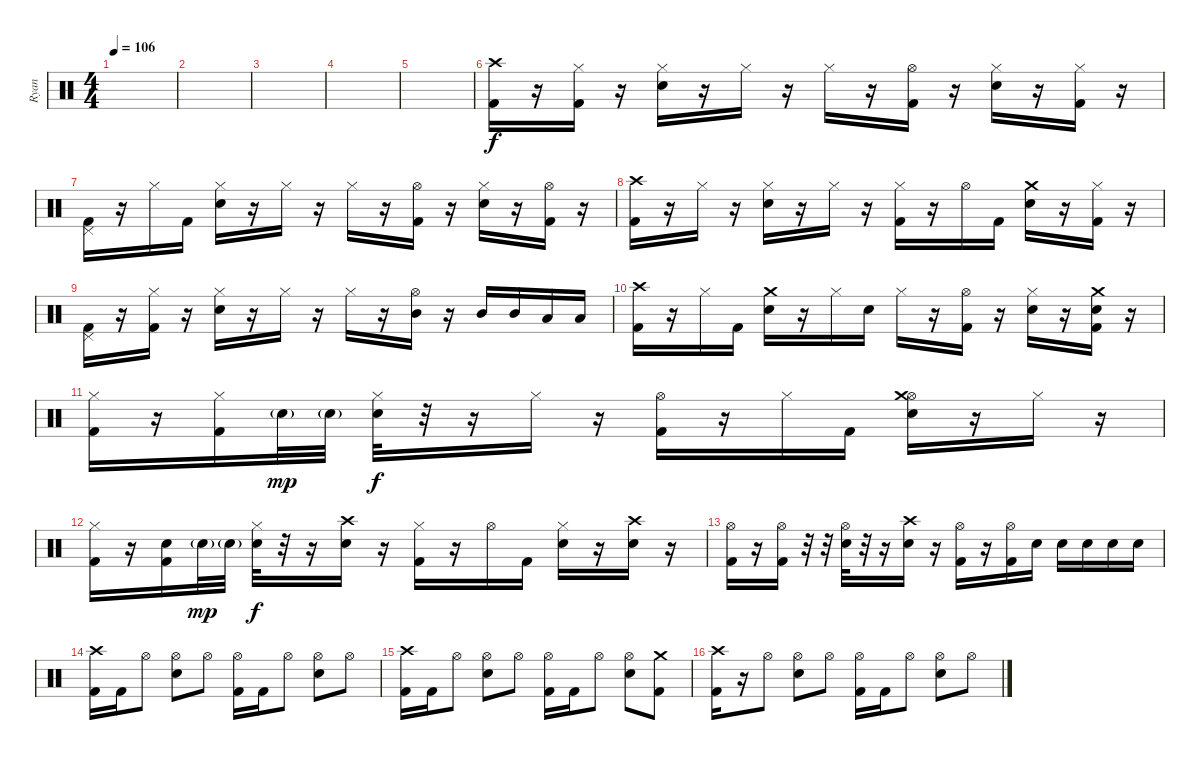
\track ("Ryan" "Ryan") {instrument percussion}
\staff {score}
\articulation defaults
\ts (4 4)
\tempo 106
\clef neutral
\ks c
|
|
|
|
|
("Crash high (hit)" "Kick (hit) 2").16 r.16 ("Hi-Hat (closed)" "Kick (hit) 2").16 r.16 ("Hi-Hat (closed)" "Electric Snare (hit)").16 r.16 "Hi-Hat (closed)".16 r.16 "Hi-Hat (closed)".16 r.16 ("Hi-Hat (open)" "Kick (hit) 2").16 r.16 ("Hi-Hat (closed)" "Electric Snare (hit)").16 r.16 ("Hi-Hat (closed)" "Kick (hit) 2").16 r.16 |
("Pedal Hi-Hat (hit)" "Kick (hit) 2").16 r.16 "Hi-Hat (closed)".16 "Kick (hit) 2".16 ("Hi-Hat (closed)" "Electric Snare (hit)").16 r.16 "Hi-Hat (closed)".16 r.16 "Hi-Hat (closed)".16 r.16 ("Hi-Hat (open)" "Kick (hit) 2").16 r.16 ("Hi-Hat (closed)" "Electric Snare (hit)").16 r.16 ("Hi-Hat (open)" "Kick (hit) 2").16 r.16 |
("Crash high (hit)" "Kick (hit) 2").16 r.16 "Hi-Hat (closed)".16 r.16 ("Hi-Hat (closed)" "Electric Snare (hit)").16 r.16 "Hi-Hat (closed)".16 r.16 ("Hi-Hat (closed)" "Kick (hit) 2").16 r.16 "Hi-Hat (open)".16 "Kick (hit) 2".16 ("Crash medium (hit)" "Electric Snare (hit)").16 r.16 ("Hi-Hat (closed)" "Kick (hit) 2").16 r.16 |
("Pedal Hi-Hat (hit)" "Kick (hit) 2").16 r.16 ("Hi-Hat (closed)" "Kick (hit) 2").16 r.16 ("Hi-Hat (closed)" "Electric Snare (hit)").16 r.16 "Hi-Hat (closed)".16 r.16 "Hi-Hat (closed)".16 r.16 ("Hi-Hat (open)" "Mid Tom (hit)").16 r.16 "Mid Tom (hit)".16 "Mid Tom (hit)".16 "Low Tom (hit)".16 "Low Tom (hit)".16 |
("Crash high (hit)" "Kick (hit) 2").16 r.16 "Hi-Hat (closed)".16 "Kick (hit) 2".16 ("Crash medium (hit)" "Electric Snare (hit)").16 r.16 "Hi-Hat (closed)".16 "Electric Snare (hit)".16 "Hi-Hat (closed)".16 r.16 ("Hi-Hat (open)" "Kick (hit) 2").16 r.16 ("Hi-Hat (closed)" "Electric Snare (hit)").16 r.16 ("Crash medium (hit)" "Electric Snare (hit)" "Kick (hit) 2").16 r.16 |
("Hi-Hat (closed)" "Kick (hit) 2").16 r.16 ("Hi-Hat (closed)" "Kick (hit) 2").16 "Electric Snare (hit)"{g}.32{dy mp} "Electric Snare (hit)"{g}.32 ("Hi-Hat (closed)" "Electric Snare (hit)").32{dy f} r.32 r.16 "Hi-Hat (closed)".16 r.16 ("Hi-Hat (open)" "Kick (hit) 2").16 r.16 "Hi-Hat (closed)".16 "Kick (hit) 2".16 ("Hi-Hat (open)" "Crash medium (hit)" "Electric Snare (hit)").16 r.16 "Hi-Hat (closed)".16 r.16 |
("Hi-Hat (closed)" "Kick (hit) 2").16 r.16 ("Snare (hit)" "Kick (hit) 2").16 "Electric Snare (hit)"{g}.32{dy mp} "Electric Snare (hit)"{g}.32 ("Hi-Hat (closed)" "Electric Snare (hit)").32{dy f} r.32 r.16 ("Crash high (hit)" "Electric Snare (hit)").16 r.16 ("Hi-Hat (closed)" "Kick (hit) 2").16 r.16 "Hi-Hat (open)".16 "Kick (hit) 2".16 ("Hi-Hat (closed)" "Electric Snare (hit)").16 r.16 ("Crash high (hit)" "Electric Snare (hit)").16 r.16 |
("Hi-Hat (open)" "Kick (hit) 2").16 r.16 ("Hi-Hat (open)" "Kick (hit) 2").16 r.32 r.32 ("Hi-Hat (open)" "Electric Snare (hit)").32 r.32 r.16 ("Crash high (hit)" "Electric Snare (hit)").16 r.16 ("Hi-Hat (open)" "Kick (hit) 2").16 r.16 ("Hi-Hat (open)" "Kick (hit) 2").16 "Electric Snare (hit)".16 "Electric Snare (hit)".16 "Electric Snare (hit)".16 "Electric Snare (hit)".16 "Electric Snare (hit)".16 |
("Crash high (hit)" "Kick (hit) 2").16 "Kick (hit) 2".16 "Hi-Hat (open)".8 ("Hi-Hat (open)" "Electric Snare (hit)").8 "Hi-Hat (open)".8 ("Hi-Hat (open)" "Kick (hit) 2").16 "Kick (hit) 2".16 "Hi-Hat (open)".8 ("Hi-Hat (open)" "Electric Snare (hit)").8 "Hi-Hat (open)".8 |
("Crash high (hit)" "Kick (hit) 2").16 "Kick (hit) 2".16 "Hi-Hat (open)".8 ("Hi-Hat (open)" "Electric Snare (hit)").8 "Hi-Hat (open)".8 ("Hi-Hat (open)" "Kick (hit) 2").16 "Kick (hit) 2".16 "Hi-Hat (open)".8 ("Hi-Hat (open)" "Electric Snare (hit)").8 ("Crash medium (hit)" "Kick (hit) 2").8 |
("Crash high (hit)" "Kick (hit) 2").16 r.16 "Hi-Hat (open)".8 ("Hi-Hat (open)" "Electric Snare (hit)").8 "Hi-Hat (open)".8 ("Hi-Hat (open)" "Kick (hit) 2").16 "Kick (hit) 2".16 "Hi-Hat (open)".8 ("Hi-Hat (open)" "Electric Snare (hit)").8 "Hi-Hat (open)".8
